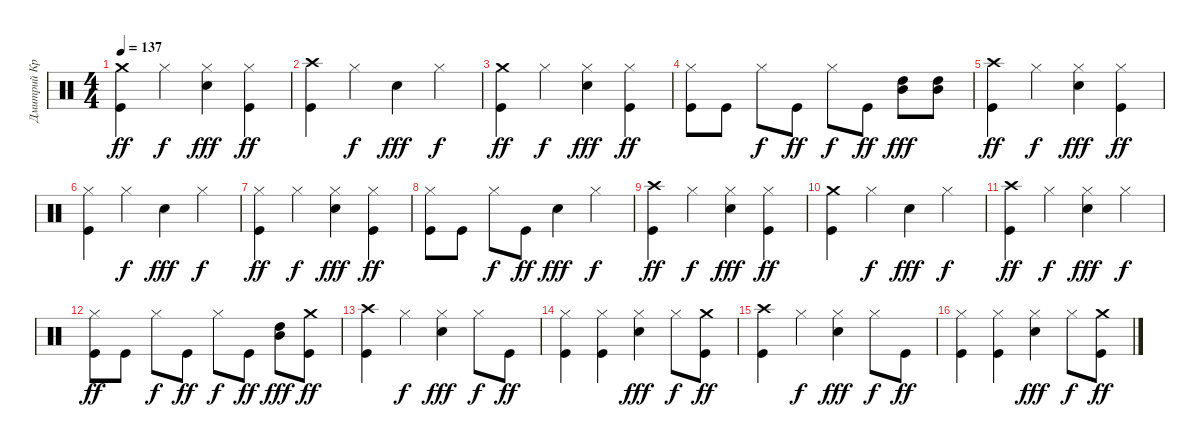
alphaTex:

\track ("Дмитрий Кревенков" "Дмитрий Кр") {instrument percussion}
\staff {score}
\articulation defaults
\ts (4 4)
\tempo 137
\clef neutral
\ks c
("Crash medium (hit)" "Kick (hit)").4{dy ff} "Hi-Hat (closed)".4{dy f} ("Snare (hit) 2" "Hi-Hat (closed)").4{dy fff} ("Kick (hit)" "Hi-Hat (closed)").4{dy ff} |
("Kick (hit)" "Crash high (hit)").4 "Hi-Hat (closed)".4{dy f} "Snare (hit) 2".4{dy fff} "Hi-Hat (closed)".4{dy f} |
("Crash medium (hit)" "Kick (hit)").4{dy ff} "Hi-Hat (closed)".4{dy f} ("Snare (hit) 2" "Hi-Hat (closed)").4{dy fff} ("Kick (hit)" "Hi-Hat (closed)").4{dy ff} |
("Kick (hit)" "Hi-Hat (closed)").8 "Kick (hit)".8 "Hi-Hat (closed)".8{dy f} "Kick (hit)".8{dy ff} "Hi-Hat (closed)".8{dy f} "Kick (hit)".8{dy ff} ("High Tom (hit)" "Mid Tom (hit)").8{dy fff} ("High Tom (hit)" "Mid Tom (hit)").8 |
("Kick (hit)" "Crash high (hit)").4{dy ff} "Hi-Hat (closed)".4{dy f} ("Snare (hit) 2" "Hi-Hat (closed)").4{dy fff} ("Kick (hit)" "Hi-Hat (closed)").4{dy ff} |
("Kick (hit)" "Hi-Hat (closed)").4 "Hi-Hat (closed)".4{dy f} "Snare (hit) 2".4{dy fff} "Hi-Hat (closed)".4{dy f} |
("Kick (hit)" "Hi-Hat (closed)").4{dy ff} "Hi-Hat (closed)".4{dy f} ("Snare (hit) 2" "Hi-Hat (closed)").4{dy fff} ("Kick (hit)" "Hi-Hat (closed)").4{dy ff} |
("Kick (hit)" "Hi-Hat (closed)").8 "Kick (hit)".8 "Hi-Hat (closed)".8{dy f} "Kick (hit)".8{dy ff} "Snare (hit) 2".4{dy fff} "Hi-Hat (closed)".4{dy f} |
("Crash high (hit)" "Kick (hit)").4{dy ff} "Hi-Hat (closed)".4{dy f} ("Snare (hit) 2" "Hi-Hat (closed)").4{dy fff} ("Kick (hit)" "Hi-Hat (closed)").4{dy ff} |
("Kick (hit)" "Crash medium (hit)").4 "Hi-Hat (closed)".4{dy f} "Snare (hit) 2".4{dy fff} "Hi-Hat (closed)".4{dy f} |
("Crash high (hit)" "Kick (hit)").4{dy ff} "Hi-Hat (closed)".4{dy f} ("Snare (hit) 2" "Hi-Hat (closed)").4{dy fff} "Hi-Hat (closed)".4{dy f} |
("Kick (hit)" "Hi-Hat (closed)").8{dy ff} "Kick (hit)".8 "Hi-Hat (closed)".8{dy f} "Kick (hit)".8{dy ff} "Hi-Hat (closed)".8{dy f} "Kick (hit)".8{dy ff} ("High Tom (hit)" "Mid Tom (hit)").8{dy fff} ("Crash medium (hit)" "Kick (hit)").8{dy ff} |
("Kick (hit)" "Crash high (hit)").4 "Hi-Hat (closed)".4{dy f} ("Snare (hit) 2" "Hi-Hat (closed)").4{dy fff} "Hi-Hat (closed)".8{dy f} "Kick (hit)".8{dy ff} |
("Kick (hit)" "Hi-Hat (closed)").4 ("Kick (hit)" "Hi-Hat (closed)").4 ("Snare (hit) 2" "Hi-Hat (closed)").4{dy fff} "Hi-Hat (closed)".8{dy f} ("Crash medium (hit)" "Kick (hit)").8{dy ff} |
("Crash high (hit)" "Kick (hit)").4 "Hi-Hat (closed)".4{dy f} ("Snare (hit) 2" "Hi-Hat (closed)").4{dy fff} "Hi-Hat (closed)".8{dy f} "Kick (hit)".8{dy ff} |
("Kick (hit)" "Hi-Hat (closed)").4 ("Kick (hit)" "Hi-Hat (closed)").4 ("Snare (hit) 2" "Hi-Hat (closed)").4{dy fff} "Hi-Hat (closed)".8{dy f} ("Kick (hit)" "Crash medium (hit)").8{dy ff}
